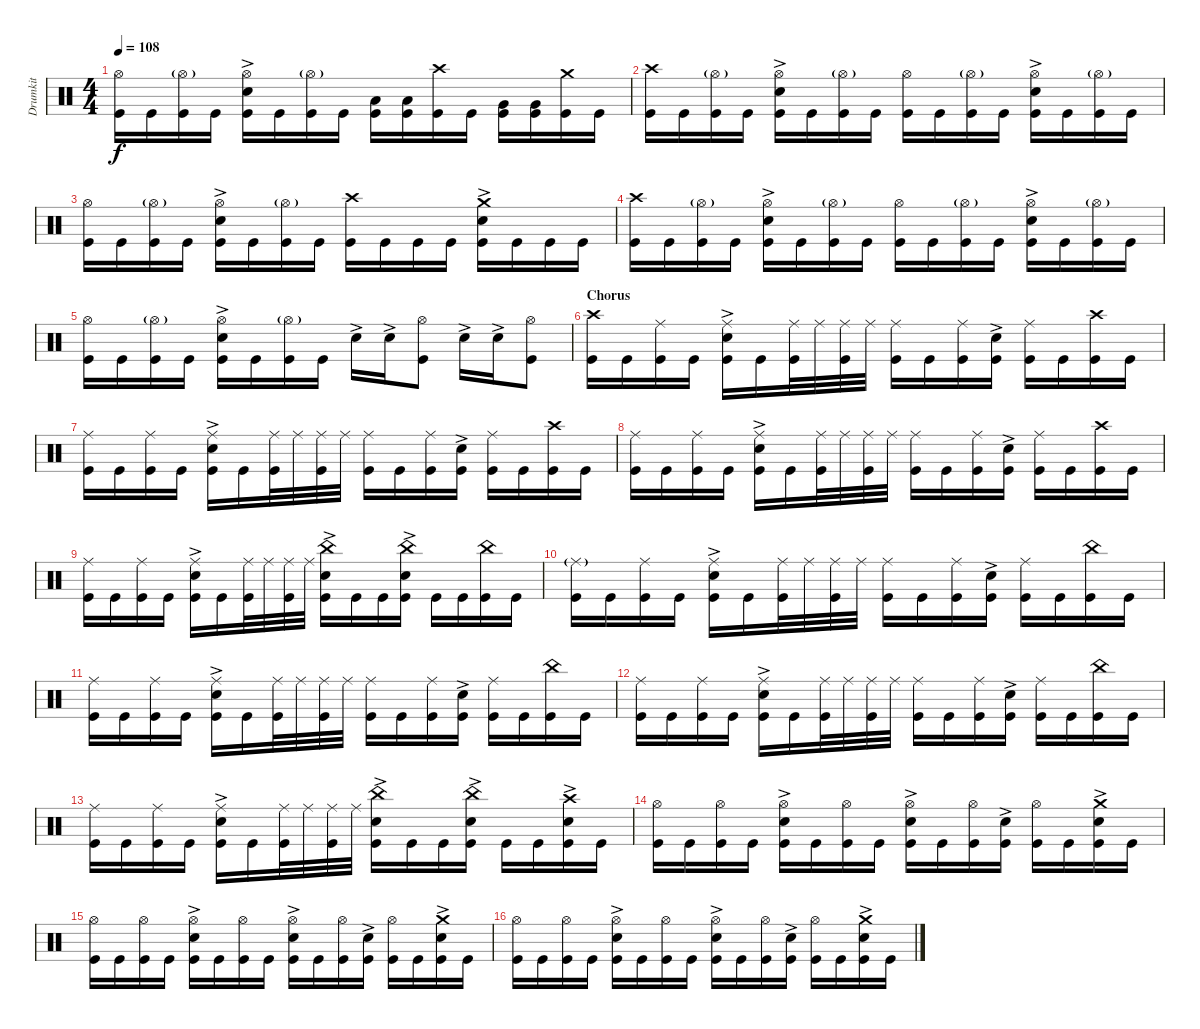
\track ("Drumkit" "Drumkit") {instrument percussion}
\staff {score}
\articulation defaults
\ts (4 4)
\tempo 108
\clef neutral
\ks c
("Kick (hit)" "Hi-Hat (open)").16{dy f} "Kick (hit)".16 ("Kick (hit)" "Hi-Hat (open)"{g}).16 "Kick (hit)".16 ("Kick (hit)" "Snare (hit) 2"{ac} "Hi-Hat (open)").16 "Kick (hit)".16 ("Kick (hit)" "Hi-Hat (open)"{g}).16 "Kick (hit)".16 ("Kick (hit)" "Low Tom (hit)").16 ("Kick (hit)" "Low Tom (hit)").16 ("Kick (hit)" "Crash high (hit)").16 "Kick (hit)".16 ("Kick (hit)" "Very Low Tom (hit)").16 ("Kick (hit)" "Very Low Tom (hit)").16 ("Kick (hit)" "Crash medium (hit)").16 "Kick (hit)".16 |
("Kick (hit)" "Crash high (hit)").16 "Kick (hit)".16 ("Kick (hit)" "Hi-Hat (open)"{g}).16 "Kick (hit)".16 ("Kick (hit)" "Snare (hit) 2"{ac} "Hi-Hat (open)").16 "Kick (hit)".16 ("Kick (hit)" "Hi-Hat (open)"{g}).16 "Kick (hit)".16 ("Kick (hit)" "Hi-Hat (open)").16 "Kick (hit)".16 ("Kick (hit)" "Hi-Hat (open)"{g}).16 "Kick (hit)".16 ("Kick (hit)" "Snare (hit) 2"{ac} "Hi-Hat (open)").16 "Kick (hit)".16 ("Kick (hit)" "Hi-Hat (open)"{g}).16 "Kick (hit)".16 |
("Kick (hit)" "Hi-Hat (open)").16 "Kick (hit)".16 ("Kick (hit)" "Hi-Hat (open)"{g}).16 "Kick (hit)".16 ("Kick (hit)" "Snare (hit) 2"{ac} "Hi-Hat (open)").16 "Kick (hit)".16 ("Kick (hit)" "Hi-Hat (open)"{g}).16 "Kick (hit)".16 ("Kick (hit)" "Crash high (hit)").16 "Kick (hit)".16 "Kick (hit)".16 "Kick (hit)".16 ("Kick (hit)" "Snare (hit) 2"{ac} "Crash medium (hit)").16 "Kick (hit)".16 "Kick (hit)".16 "Kick (hit)".16 |
("Kick (hit)" "Crash high (hit)").16 "Kick (hit)".16 ("Kick (hit)" "Hi-Hat (open)"{g}).16 "Kick (hit)".16 ("Kick (hit)" "Snare (hit) 2"{ac} "Hi-Hat (open)").16 "Kick (hit)".16 ("Kick (hit)" "Hi-Hat (open)"{g}).16 "Kick (hit)".16 ("Kick (hit)" "Hi-Hat (open)").16 "Kick (hit)".16 ("Kick (hit)" "Hi-Hat (open)"{g}).16 "Kick (hit)".16 ("Kick (hit)" "Snare (hit) 2"{ac} "Hi-Hat (open)").16 "Kick (hit)".16 ("Kick (hit)" "Hi-Hat (open)"{g}).16 "Kick (hit)".16 |
("Kick (hit)" "Hi-Hat (open)").16 "Kick (hit)".16 ("Kick (hit)" "Hi-Hat (open)"{g}).16 "Kick (hit)".16 ("Kick (hit)" "Snare (hit) 2"{ac} "Hi-Hat (open)").16 "Kick (hit)".16 ("Kick (hit)" "Hi-Hat (open)"{g}).16 "Kick (hit)".16 "Snare (hit) 2"{ac}.16 "Snare (hit) 2"{ac}.16 ("Kick (hit)" "Hi-Hat (open)").8 "Snare (hit) 2"{ac}.16 "Snare (hit) 2"{ac}.16 ("Kick (hit)" "Hi-Hat (open)").8 |
\section ("" "Chorus")
("Kick (hit)" "Crash high (hit)").16 "Kick (hit)".16 ("Ride (middle)" "Kick (hit)").16 "Kick (hit)".16 ("Ride (middle)" "Snare (hit) 2"{ac} "Kick (hit)").16 "Kick (hit)".16 ("Ride (middle)" "Kick (hit)").32 "Ride (middle)".32 ("Ride (middle)" "Kick (hit)").32 "Ride (middle)".32 ("Ride (middle)" "Kick (hit)").16 "Kick (hit)".16 ("Kick (hit)" "Ride (middle)").16 ("Kick (hit)" "Snare (hit) 2"{ac}).16 ("Kick (hit)" "Ride (middle)").16 "Kick (hit)".16 ("Kick (hit)" "Crash high (hit)").16 "Kick (hit)".16 |
("Kick (hit)" "Ride (middle)").16 "Kick (hit)".16 ("Ride (middle)" "Kick (hit)").16 "Kick (hit)".16 ("Ride (middle)" "Snare (hit) 2"{ac} "Kick (hit)").16 "Kick (hit)".16 ("Ride (middle)" "Kick (hit)").32 "Ride (middle)".32 ("Ride (middle)" "Kick (hit)").32 "Ride (middle)".32 ("Ride (middle)" "Kick (hit)").16 "Kick (hit)".16 ("Kick (hit)" "Ride (middle)").16 ("Kick (hit)" "Snare (hit) 2"{ac}).16 ("Kick (hit)" "Ride (middle)").16 "Kick (hit)".16 ("Kick (hit)" "Crash high (hit)").16 "Kick (hit)".16 |
("Kick (hit)" "Ride (middle)").16 "Kick (hit)".16 ("Ride (middle)" "Kick (hit)").16 "Kick (hit)".16 ("Ride (middle)" "Snare (hit) 2"{ac} "Kick (hit)").16 "Kick (hit)".16 ("Ride (middle)" "Kick (hit)").32 "Ride (middle)".32 ("Ride (middle)" "Kick (hit)").32 "Ride (middle)".32 ("Ride (middle)" "Kick (hit)").16 "Kick (hit)".16 ("Kick (hit)" "Ride (middle)").16 ("Kick (hit)" "Snare (hit) 2"{ac}).16 ("Kick (hit)" "Ride (middle)").16 "Kick (hit)".16 ("Kick (hit)" "Crash high (hit)").16 "Kick (hit)".16 |
("Kick (hit)" "Ride (middle)").16 "Kick (hit)".16 ("Ride (middle)" "Kick (hit)").16 "Kick (hit)".16 ("Ride (middle)" "Snare (hit) 2"{ac} "Kick (hit)").16 "Kick (hit)".16 ("Ride (middle)" "Kick (hit)").32 "Ride (middle)".32 ("Ride (middle)" "Kick (hit)").32 "Ride (middle)".32 ("Kick (hit)" "Snare (hit) 2"{ac} "China (hit)").16 "Kick (hit)".16 "Kick (hit)".16 ("Kick (hit)" "Snare (hit) 2"{ac} "China (hit)").16 "Kick (hit)".16 "Kick (hit)".16 ("Kick (hit)" "China (hit)").16 "Kick (hit)".16 |
("Kick (hit)" "Ride (middle)"{g}).16 "Kick (hit)".16 ("Ride (middle)" "Kick (hit)").16 "Kick (hit)".16 ("Ride (middle)" "Snare (hit) 2"{ac} "Kick (hit)").16 "Kick (hit)".16 ("Ride (middle)" "Kick (hit)").32 "Ride (middle)".32 ("Ride (middle)" "Kick (hit)").32 "Ride (middle)".32 ("Ride (middle)" "Kick (hit)").16 "Kick (hit)".16 ("Kick (hit)" "Ride (middle)").16 ("Kick (hit)" "Snare (hit) 2"{ac}).16 ("Kick (hit)" "Ride (middle)").16 "Kick (hit)".16 ("Kick (hit)" "China (hit)").16 "Kick (hit)".16 |
("Kick (hit)" "Ride (middle)").16 "Kick (hit)".16 ("Ride (middle)" "Kick (hit)").16 "Kick (hit)".16 ("Ride (middle)" "Snare (hit) 2"{ac} "Kick (hit)").16 "Kick (hit)".16 ("Ride (middle)" "Kick (hit)").32 "Ride (middle)".32 ("Ride (middle)" "Kick (hit)").32 "Ride (middle)".32 ("Ride (middle)" "Kick (hit)").16 "Kick (hit)".16 ("Kick (hit)" "Ride (middle)").16 ("Kick (hit)" "Snare (hit) 2"{ac}).16 ("Kick (hit)" "Ride (middle)").16 "Kick (hit)".16 ("Kick (hit)" "China (hit)").16 "Kick (hit)".16 |
("Kick (hit)" "Ride (middle)").16 "Kick (hit)".16 ("Ride (middle)" "Kick (hit)").16 "Kick (hit)".16 ("Ride (middle)" "Snare (hit) 2"{ac} "Kick (hit)").16 "Kick (hit)".16 ("Ride (middle)" "Kick (hit)").32 "Ride (middle)".32 ("Ride (middle)" "Kick (hit)").32 "Ride (middle)".32 ("Ride (middle)" "Kick (hit)").16 "Kick (hit)".16 ("Kick (hit)" "Ride (middle)").16 ("Kick (hit)" "Snare (hit) 2"{ac}).16 ("Kick (hit)" "Ride (middle)").16 "Kick (hit)".16 ("Kick (hit)" "China (hit)").16 "Kick (hit)".16 |
("Kick (hit)" "Ride (middle)").16 "Kick (hit)".16 ("Ride (middle)" "Kick (hit)").16 "Kick (hit)".16 ("Ride (middle)" "Snare (hit) 2"{ac} "Kick (hit)").16 "Kick (hit)".16 ("Ride (middle)" "Kick (hit)").32 "Ride (middle)".32 ("Ride (middle)" "Kick (hit)").32 "Ride (middle)".32 ("Kick (hit)" "Snare (hit) 2"{ac} "China (hit)").16 "Kick (hit)".16 "Kick (hit)".16 ("Kick (hit)" "Snare (hit) 2"{ac} "China (hit)").16 "Kick (hit)".16 "Kick (hit)".16 ("Kick (hit)" "Crash high (hit)" "Snare (hit) 2"{ac}).16 "Kick (hit)".16 |
("Kick (hit)" "Hi-Hat (open)").16 "Kick (hit)".16 ("Kick (hit)" "Hi-Hat (open)").16 "Kick (hit)".16 ("Kick (hit)" "Snare (hit) 2"{ac} "Hi-Hat (open)").16 "Kick (hit)".16 ("Kick (hit)" "Hi-Hat (open)").16 "Kick (hit)".16 ("Kick (hit)" "Snare (hit) 2"{ac} "Hi-Hat (open)").16 "Kick (hit)".16 ("Kick (hit)" "Hi-Hat (open)").16 ("Kick (hit)" "Snare (hit) 2"{ac}).16 ("Kick (hit)" "Hi-Hat (open)").16 "Kick (hit)".16 ("Kick (hit)" "Crash medium (hit)" "Snare (hit) 2"{ac}).16 "Kick (hit)".16 |
("Kick (hit)" "Hi-Hat (open)").16 "Kick (hit)".16 ("Kick (hit)" "Hi-Hat (open)").16 "Kick (hit)".16 ("Kick (hit)" "Snare (hit) 2"{ac} "Hi-Hat (open)").16 "Kick (hit)".16 ("Kick (hit)" "Hi-Hat (open)").16 "Kick (hit)".16 ("Kick (hit)" "Snare (hit) 2"{ac} "Hi-Hat (open)").16 "Kick (hit)".16 ("Kick (hit)" "Hi-Hat (open)").16 ("Kick (hit)" "Snare (hit) 2"{ac}).16 ("Kick (hit)" "Hi-Hat (open)").16 "Kick (hit)".16 ("Kick (hit)" "Crash medium (hit)" "Snare (hit) 2"{ac}).16 "Kick (hit)".16 |
("Kick (hit)" "Hi-Hat (open)").16 "Kick (hit)".16 ("Kick (hit)" "Hi-Hat (open)").16 "Kick (hit)".16 ("Kick (hit)" "Snare (hit) 2"{ac} "Hi-Hat (open)").16 "Kick (hit)".16 ("Kick (hit)" "Hi-Hat (open)").16 "Kick (hit)".16 ("Kick (hit)" "Snare (hit) 2"{ac} "Hi-Hat (open)").16 "Kick (hit)".16 ("Kick (hit)" "Hi-Hat (open)").16 ("Kick (hit)" "Snare (hit) 2"{ac}).16 ("Kick (hit)" "Hi-Hat (open)").16 "Kick (hit)".16 ("Kick (hit)" "Crash medium (hit)" "Snare (hit) 2"{ac}).16 "Kick (hit)".16
